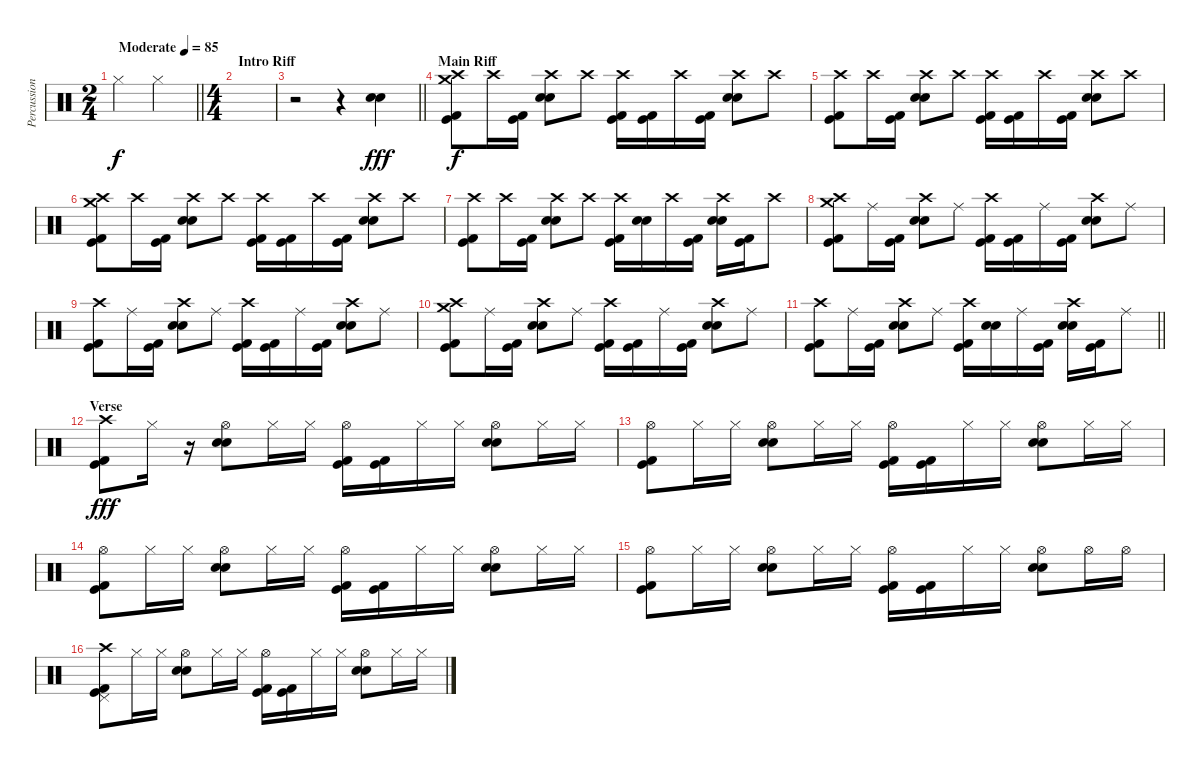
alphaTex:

\track ("Percussion" "Percussion") {instrument percussion}
\staff {score}
\articulation defaults
\ts (2 4)
\tempo (85 "Moderate")
\clef neutral
\barLineRight lightlight
\ks c "Hi-Hat (closed)".4{dy f} "Hi-Hat (closed)".4
|
\ts (4 4)
\section ("" "Intro Riff")
|
\barLineRight lightlight
r.2 r.4 ("Electric Snare (hit)" "Snare (hit) 2").4{dy fff} |
\section ("" "Main Riff")
("Kick (hit) 2" "Kick (hit)" "Crash high (hit)" "Crash medium (hit)").8{dy f} "Crash high (hit)".16 ("Kick (hit) 2" "Kick (hit)").16 ("Electric Snare (hit)" "Snare (hit) 2" "Crash high (hit)").8 "Crash high (hit)".8 ("Kick (hit) 2" "Kick (hit)" "Crash high (hit)").16 ("Kick (hit) 2" "Kick (hit)").16 "Crash high (hit)".16 ("Kick (hit) 2" "Kick (hit)").16 ("Electric Snare (hit)" "Snare (hit) 2" "Crash high (hit)").8 "Crash high (hit)".8 |
("Kick (hit) 2" "Kick (hit)" "Crash high (hit)").8 "Crash high (hit)".16 ("Kick (hit) 2" "Kick (hit)").16 ("Electric Snare (hit)" "Snare (hit) 2" "Crash high (hit)").8 "Crash high (hit)".8 ("Kick (hit) 2" "Kick (hit)" "Crash high (hit)").16 ("Kick (hit) 2" "Kick (hit)").16 "Crash high (hit)".16 ("Kick (hit) 2" "Kick (hit)").16 ("Electric Snare (hit)" "Snare (hit) 2" "Crash high (hit)").8 "Crash high (hit)".8 |
("Kick (hit) 2" "Kick (hit)" "Crash high (hit)" "Crash medium (hit)").8 "Crash high (hit)".16 ("Kick (hit) 2" "Kick (hit)").16 ("Electric Snare (hit)" "Snare (hit) 2" "Crash high (hit)").8 "Crash high (hit)".8 ("Kick (hit) 2" "Kick (hit)" "Crash high (hit)").16 ("Kick (hit) 2" "Kick (hit)").16 "Crash high (hit)".16 ("Kick (hit) 2" "Kick (hit)").16 ("Electric Snare (hit)" "Snare (hit) 2" "Crash high (hit)").8 "Crash high (hit)".8 |
("Kick (hit) 2" "Kick (hit)" "Crash high (hit)").8 "Crash high (hit)".16 ("Kick (hit) 2" "Kick (hit)").16 ("Electric Snare (hit)" "Snare (hit) 2" "Crash high (hit)").8 "Crash high (hit)".8 ("Kick (hit) 2" "Kick (hit)" "Crash high (hit)").16 ("Electric Snare (hit)" "Snare (hit) 2").16 "Crash high (hit)".16 ("Kick (hit) 2" "Kick (hit)").16 ("Electric Snare (hit)" "Snare (hit) 2" "Crash high (hit)").16 ("Kick (hit) 2" "Kick (hit)").16 "Crash high (hit)".8 |
("Kick (hit) 2" "Kick (hit)" "Crash high (hit)" "Crash medium (hit)").8 "Ride (middle)".16 ("Kick (hit) 2" "Kick (hit)").16 ("Electric Snare (hit)" "Snare (hit) 2" "Crash high (hit)").8 "Ride (middle)".8 ("Kick (hit) 2" "Kick (hit)" "Crash high (hit)").16 ("Kick (hit) 2" "Kick (hit)").16 "Ride (middle)".16 ("Kick (hit) 2" "Kick (hit)").16 ("Electric Snare (hit)" "Snare (hit) 2" "Crash high (hit)").8 "Ride (middle)".8 |
("Kick (hit) 2" "Kick (hit)" "Crash high (hit)").8 "Ride (middle)".16 ("Kick (hit) 2" "Kick (hit)").16 ("Electric Snare (hit)" "Snare (hit) 2" "Crash high (hit)").8 "Ride (middle)".8 ("Kick (hit) 2" "Kick (hit)" "Crash high (hit)").16 ("Kick (hit) 2" "Kick (hit)").16 "Ride (middle)".16 ("Kick (hit) 2" "Kick (hit)").16 ("Electric Snare (hit)" "Snare (hit) 2" "Crash high (hit)").8 "Ride (middle)".8 |
("Kick (hit) 2" "Kick (hit)" "Crash high (hit)" "Crash medium (hit)").8 "Ride (middle)".16 ("Kick (hit) 2" "Kick (hit)").16 ("Electric Snare (hit)" "Snare (hit) 2" "Crash high (hit)").8 "Ride (middle)".8 ("Kick (hit) 2" "Kick (hit)" "Crash high (hit)").16 ("Kick (hit) 2" "Kick (hit)").16 "Ride (middle)".16 ("Kick (hit) 2" "Kick (hit)").16 ("Electric Snare (hit)" "Snare (hit) 2" "Crash high (hit)").8 "Ride (middle)".8 |
\barLineRight lightlight
("Kick (hit) 2" "Kick (hit)" "Crash high (hit)").8 "Ride (middle)".16 ("Kick (hit) 2" "Kick (hit)").16 ("Electric Snare (hit)" "Snare (hit) 2" "Crash high (hit)").8 "Ride (middle)".8 ("Kick (hit) 2" "Kick (hit)" "Crash high (hit)").16 ("Electric Snare (hit)" "Snare (hit) 2").16 "Ride (middle)".16 ("Kick (hit) 2" "Kick (hit)").16 ("Electric Snare (hit)" "Snare (hit) 2" "Crash high (hit)").16 ("Kick (hit) 2" "Kick (hit)").16 "Ride (middle)".8 |
\section ("" "Verse")
("Kick (hit) 2" "Kick (hit)" "Crash high (hit)").8{dy fff} "Hi-Hat (closed)".16 r.16 ("Electric Snare (hit)" "Snare (hit) 2" "Hi-Hat (open)").8 "Hi-Hat (closed)".16 "Hi-Hat (closed)".16 ("Kick (hit) 2" "Kick (hit)" "Hi-Hat (open)").16 ("Kick (hit) 2" "Kick (hit)").16 "Hi-Hat (closed)".16 "Hi-Hat (closed)".16 ("Electric Snare (hit)" "Snare (hit) 2" "Hi-Hat (open)").8 "Hi-Hat (closed)".16 "Hi-Hat (closed)".16 |
("Kick (hit) 2" "Kick (hit)" "Hi-Hat (open)").8 "Hi-Hat (closed)".16 "Hi-Hat (closed)".16 ("Electric Snare (hit)" "Snare (hit) 2" "Hi-Hat (open)").8 "Hi-Hat (closed)".16 "Hi-Hat (closed)".16 ("Kick (hit) 2" "Kick (hit)" "Hi-Hat (open)").16 ("Kick (hit) 2" "Kick (hit)").16 "Hi-Hat (closed)".16 "Hi-Hat (closed)".16 ("Electric Snare (hit)" "Snare (hit) 2" "Hi-Hat (open)").8 "Hi-Hat (closed)".16 "Hi-Hat (closed)".16 |
("Kick (hit) 2" "Kick (hit)" "Hi-Hat (open)").8 "Hi-Hat (closed)".16 "Hi-Hat (closed)".16 ("Electric Snare (hit)" "Snare (hit) 2" "Hi-Hat (open)").8 "Hi-Hat (closed)".16 "Hi-Hat (closed)".16 ("Kick (hit) 2" "Kick (hit)" "Hi-Hat (open)").16 ("Kick (hit) 2" "Kick (hit)").16 "Hi-Hat (closed)".16 "Hi-Hat (closed)".16 ("Electric Snare (hit)" "Snare (hit) 2" "Hi-Hat (open)").8 "Hi-Hat (closed)".16 "Hi-Hat (closed)".16 |
("Kick (hit) 2" "Kick (hit)" "Hi-Hat (open)").8 "Hi-Hat (closed)".16 "Hi-Hat (closed)".16 ("Electric Snare (hit)" "Snare (hit) 2" "Hi-Hat (open)").8 "Hi-Hat (closed)".16 "Hi-Hat (closed)".16 ("Kick (hit) 2" "Kick (hit)" "Hi-Hat (open)").16 ("Kick (hit) 2" "Kick (hit)").16 "Hi-Hat (closed)".16 "Hi-Hat (closed)".16 ("Electric Snare (hit)" "Snare (hit) 2" "Hi-Hat (open)").8 "Hi-Hat (open)".16 "Hi-Hat (open)".16 |
("Kick (hit) 2" "Kick (hit)" "Pedal Hi-Hat (hit)" "Crash high (hit)").8 "Hi-Hat (closed)".16 "Hi-Hat (closed)".16 ("Electric Snare (hit)" "Snare (hit) 2" "Hi-Hat (open)").8 "Hi-Hat (closed)".16 "Hi-Hat (closed)".16 ("Kick (hit) 2" "Kick (hit)" "Hi-Hat (open)").16 ("Kick (hit) 2" "Kick (hit)").16 "Hi-Hat (closed)".16 "Hi-Hat (closed)".16 ("Electric Snare (hit)" "Snare (hit) 2" "Hi-Hat (open)").8 "Hi-Hat (closed)".16 "Hi-Hat (closed)".16
